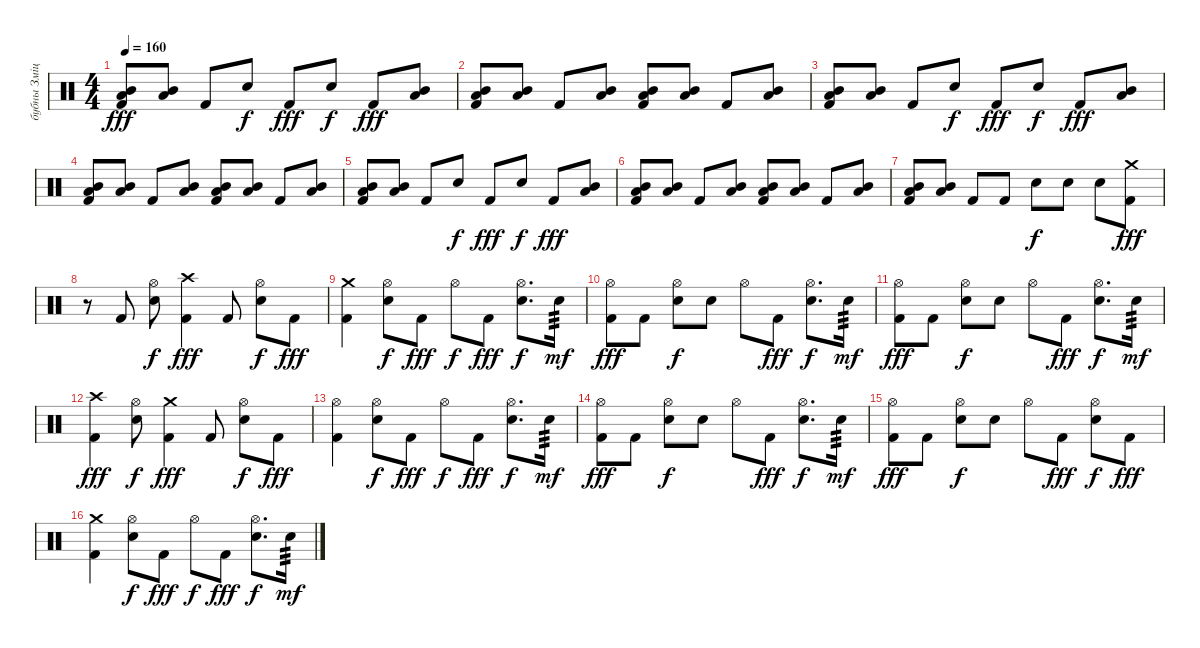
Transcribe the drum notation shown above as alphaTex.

\track ("бубны Змiцер" "бубны Змiц") {instrument percussion}
\staff {score}
\articulation defaults
\ts (4 4)
\tempo 160
\clef neutral
\ks c
("Mid Tom (hit)" "Low Tom (hit)" "Kick (hit) 2").8{dy fff} ("Mid Tom (hit)" "Low Tom (hit)").8 "Kick (hit) 2".8 "Electric Snare (hit)".8{dy f} "Kick (hit) 2".8{dy fff} "Electric Snare (hit)".8{dy f} "Kick (hit) 2".8{dy fff} ("Mid Tom (hit)" "Low Tom (hit)").8 |
("Mid Tom (hit)" "Low Tom (hit)" "Kick (hit) 2").8 ("Mid Tom (hit)" "Low Tom (hit)").8 "Kick (hit) 2".8 ("Mid Tom (hit)" "Low Tom (hit)").8 ("Mid Tom (hit)" "Low Tom (hit)" "Kick (hit) 2").8 ("Mid Tom (hit)" "Low Tom (hit)").8 "Kick (hit) 2".8 ("Mid Tom (hit)" "Low Tom (hit)").8 |
("Mid Tom (hit)" "Low Tom (hit)" "Kick (hit) 2").8 ("Mid Tom (hit)" "Low Tom (hit)").8 "Kick (hit) 2".8 "Electric Snare (hit)".8{dy f} "Kick (hit) 2".8{dy fff} "Electric Snare (hit)".8{dy f} "Kick (hit) 2".8{dy fff} ("Mid Tom (hit)" "Low Tom (hit)").8 |
("Mid Tom (hit)" "Low Tom (hit)" "Kick (hit) 2").8 ("Mid Tom (hit)" "Low Tom (hit)").8 "Kick (hit) 2".8 ("Mid Tom (hit)" "Low Tom (hit)").8 ("Mid Tom (hit)" "Low Tom (hit)" "Kick (hit) 2").8 ("Mid Tom (hit)" "Low Tom (hit)").8 "Kick (hit) 2".8 ("Mid Tom (hit)" "Low Tom (hit)").8 |
("Mid Tom (hit)" "Low Tom (hit)" "Kick (hit) 2").8 ("Mid Tom (hit)" "Low Tom (hit)").8 "Kick (hit) 2".8 "Electric Snare (hit)".8{dy f} "Kick (hit) 2".8{dy fff} "Electric Snare (hit)".8{dy f} "Kick (hit) 2".8{dy fff} ("Mid Tom (hit)" "Low Tom (hit)").8 |
("Mid Tom (hit)" "Low Tom (hit)" "Kick (hit) 2").8 ("Mid Tom (hit)" "Low Tom (hit)").8 "Kick (hit) 2".8 ("Mid Tom (hit)" "Low Tom (hit)").8 ("Mid Tom (hit)" "Low Tom (hit)" "Kick (hit) 2").8 ("Mid Tom (hit)" "Low Tom (hit)").8 "Kick (hit) 2".8 ("Mid Tom (hit)" "Low Tom (hit)").8 |
("Mid Tom (hit)" "Low Tom (hit)" "Kick (hit) 2").8 ("Mid Tom (hit)" "Low Tom (hit)").8 "Kick (hit) 2".8 "Kick (hit) 2".8 "Electric Snare (hit)".8{dy f} "Electric Snare (hit)".8 "Electric Snare (hit)".8 ("Crash medium (hit)" "Kick (hit) 2").8{dy fff} |
r.8 "Kick (hit) 2".8 ("Hi-Hat (open)" "Electric Snare (hit)").8{dy f} ("Crash high (hit)" "Kick (hit) 2").4{dy fff} "Kick (hit) 2".8 ("Hi-Hat (open)" "Electric Snare (hit)").8{dy f} "Kick (hit) 2".8{dy fff} |
("Crash medium (hit)" "Kick (hit) 2").4 ("Hi-Hat (open)" "Electric Snare (hit)").8{dy f} "Kick (hit) 2".8{dy fff} "Hi-Hat (open)".8{dy f} "Kick (hit) 2".8{dy fff} ("Hi-Hat (open)" "Electric Snare (hit)").8{d dy f} "Electric Snare (hit)".16{tp 3 dy mf} |
("Hi-Hat (open)" "Kick (hit) 2").8{dy fff} "Kick (hit) 2".8 ("Hi-Hat (open)" "Electric Snare (hit)").8{dy f} "Electric Snare (hit)".8 "Hi-Hat (open)".8 "Kick (hit) 2".8{dy fff} ("Hi-Hat (open)" "Electric Snare (hit)").8{d dy f} "Electric Snare (hit)".16{tp 3 dy mf} |
("Hi-Hat (open)" "Kick (hit) 2").8{dy fff} "Kick (hit) 2".8 ("Hi-Hat (open)" "Electric Snare (hit)").8{dy f} "Electric Snare (hit)".8 "Hi-Hat (open)".8 "Kick (hit) 2".8{dy fff} ("Hi-Hat (open)" "Electric Snare (hit)").8{d dy f} "Electric Snare (hit)".16{tp 3 dy mf} |
("Crash high (hit)" "Kick (hit) 2").4{dy fff} ("Hi-Hat (open)" "Electric Snare (hit)").8{dy f} ("Crash medium (hit)" "Kick (hit) 2").4{dy fff} "Kick (hit) 2".8 ("Hi-Hat (open)" "Electric Snare (hit)").8{dy f} "Kick (hit) 2".8{dy fff} |
("Hi-Hat (open)" "Kick (hit) 2").4 ("Hi-Hat (open)" "Electric Snare (hit)").8{dy f} "Kick (hit) 2".8{dy fff} "Hi-Hat (open)".8{dy f} "Kick (hit) 2".8{dy fff} ("Hi-Hat (open)" "Electric Snare (hit)").8{d dy f} "Electric Snare (hit)".16{tp 3 dy mf} |
("Hi-Hat (open)" "Kick (hit) 2").8{dy fff} "Kick (hit) 2".8 ("Hi-Hat (open)" "Electric Snare (hit)").8{dy f} "Electric Snare (hit)".8 "Hi-Hat (open)".8 "Kick (hit) 2".8{dy fff} ("Hi-Hat (open)" "Electric Snare (hit)").8{d dy f} "Electric Snare (hit)".16{tp 3 dy mf} |
("Hi-Hat (open)" "Kick (hit) 2").8{dy fff} "Kick (hit) 2".8 ("Hi-Hat (open)" "Electric Snare (hit)").8{dy f} "Electric Snare (hit)".8 "Hi-Hat (open)".8 "Kick (hit) 2".8{dy fff} ("Hi-Hat (open)" "Electric Snare (hit)").8{dy f} "Kick (hit) 2".8{dy fff} |
("Crash medium (hit)" "Kick (hit) 2").4 ("Hi-Hat (open)" "Electric Snare (hit)").8{dy f} "Kick (hit) 2".8{dy fff} "Hi-Hat (open)".8{dy f} "Kick (hit) 2".8{dy fff} ("Hi-Hat (open)" "Electric Snare (hit)").8{d dy f} "Electric Snare (hit)".16{tp 3 dy mf}
